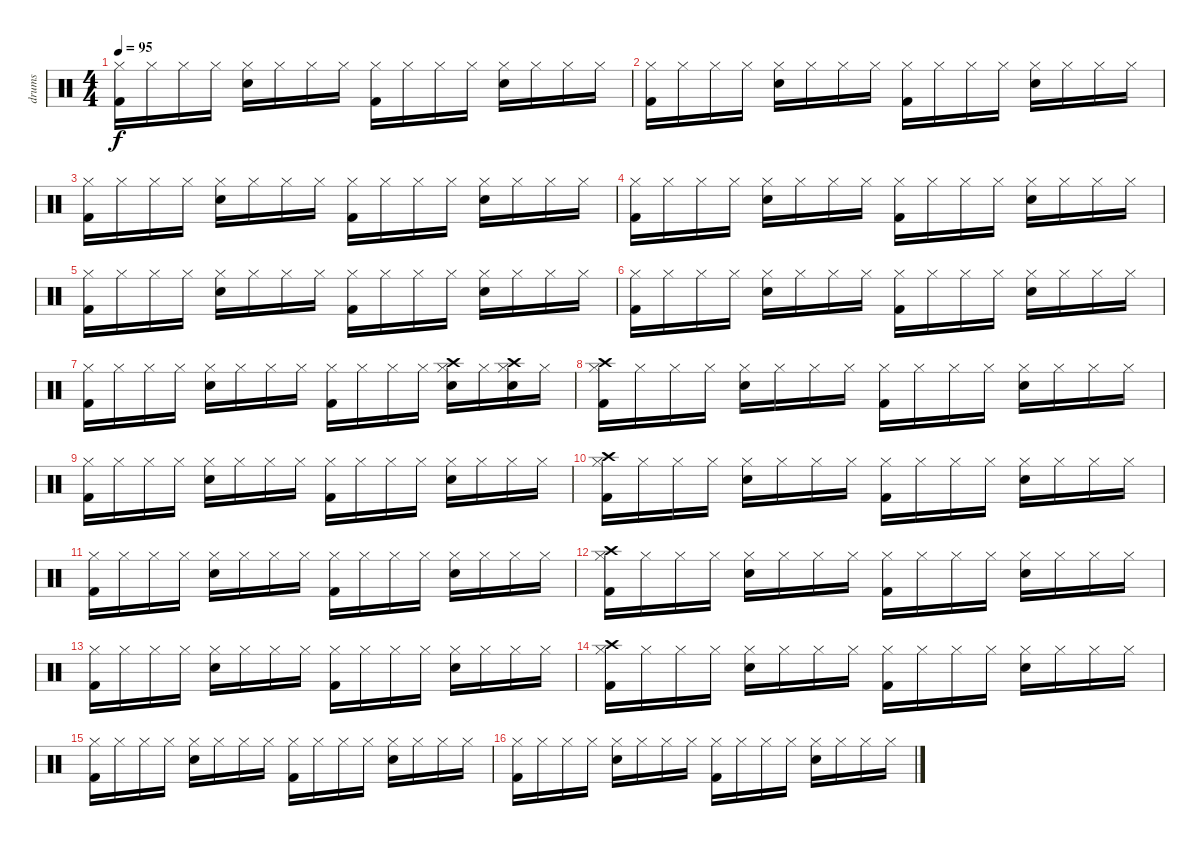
\track ("drums" "drums") {instrument percussion}
\staff {score}
\articulation defaults
\ts (4 4)
\tempo 95
\clef neutral
\ks c
("Kick (hit) 2" "Hi-Hat (closed)").16{dy f} "Hi-Hat (closed)".16 "Hi-Hat (closed)".16 "Hi-Hat (closed)".16 ("Snare (hit) 2" "Hi-Hat (closed)").16 "Hi-Hat (closed)".16 "Hi-Hat (closed)".16 "Hi-Hat (closed)".16 ("Kick (hit) 2" "Hi-Hat (closed)").16 "Hi-Hat (closed)".16 "Hi-Hat (closed)".16 "Hi-Hat (closed)".16 ("Snare (hit) 2" "Hi-Hat (closed)").16 "Hi-Hat (closed)".16 "Hi-Hat (closed)".16 "Hi-Hat (closed)".16 |
("Kick (hit) 2" "Hi-Hat (closed)").16 "Hi-Hat (closed)".16 "Hi-Hat (closed)".16 "Hi-Hat (closed)".16 ("Snare (hit) 2" "Hi-Hat (closed)").16 "Hi-Hat (closed)".16 "Hi-Hat (closed)".16 "Hi-Hat (closed)".16 ("Kick (hit) 2" "Hi-Hat (closed)").16 "Hi-Hat (closed)".16 "Hi-Hat (closed)".16 "Hi-Hat (closed)".16 ("Snare (hit) 2" "Hi-Hat (closed)").16 "Hi-Hat (closed)".16 "Hi-Hat (closed)".16 "Hi-Hat (closed)".16 |
("Kick (hit) 2" "Hi-Hat (closed)").16 "Hi-Hat (closed)".16 "Hi-Hat (closed)".16 "Hi-Hat (closed)".16 ("Snare (hit) 2" "Hi-Hat (closed)").16 "Hi-Hat (closed)".16 "Hi-Hat (closed)".16 "Hi-Hat (closed)".16 ("Kick (hit) 2" "Hi-Hat (closed)").16 "Hi-Hat (closed)".16 "Hi-Hat (closed)".16 "Hi-Hat (closed)".16 ("Snare (hit) 2" "Hi-Hat (closed)").16 "Hi-Hat (closed)".16 "Hi-Hat (closed)".16 "Hi-Hat (closed)".16 |
("Kick (hit) 2" "Hi-Hat (closed)").16 "Hi-Hat (closed)".16 "Hi-Hat (closed)".16 "Hi-Hat (closed)".16 ("Snare (hit) 2" "Hi-Hat (closed)").16 "Hi-Hat (closed)".16 "Hi-Hat (closed)".16 "Hi-Hat (closed)".16 ("Kick (hit) 2" "Hi-Hat (closed)").16 "Hi-Hat (closed)".16 "Hi-Hat (closed)".16 "Hi-Hat (closed)".16 ("Snare (hit) 2" "Hi-Hat (closed)").16 "Hi-Hat (closed)".16 "Hi-Hat (closed)".16 "Hi-Hat (closed)".16 |
("Kick (hit) 2" "Hi-Hat (closed)").16 "Hi-Hat (closed)".16 "Hi-Hat (closed)".16 "Hi-Hat (closed)".16 ("Snare (hit) 2" "Hi-Hat (closed)").16 "Hi-Hat (closed)".16 "Hi-Hat (closed)".16 "Hi-Hat (closed)".16 ("Kick (hit) 2" "Hi-Hat (closed)").16 "Hi-Hat (closed)".16 "Hi-Hat (closed)".16 "Hi-Hat (closed)".16 ("Snare (hit) 2" "Hi-Hat (closed)").16 "Hi-Hat (closed)".16 "Hi-Hat (closed)".16 "Hi-Hat (closed)".16 |
("Kick (hit) 2" "Hi-Hat (closed)").16 "Hi-Hat (closed)".16 "Hi-Hat (closed)".16 "Hi-Hat (closed)".16 ("Snare (hit) 2" "Hi-Hat (closed)").16 "Hi-Hat (closed)".16 "Hi-Hat (closed)".16 "Hi-Hat (closed)".16 ("Kick (hit) 2" "Hi-Hat (closed)").16 "Hi-Hat (closed)".16 "Hi-Hat (closed)".16 "Hi-Hat (closed)".16 ("Snare (hit) 2" "Hi-Hat (closed)").16 "Hi-Hat (closed)".16 "Hi-Hat (closed)".16 "Hi-Hat (closed)".16 |
("Kick (hit) 2" "Hi-Hat (closed)").16 "Hi-Hat (closed)".16 "Hi-Hat (closed)".16 "Hi-Hat (closed)".16 ("Snare (hit) 2" "Hi-Hat (closed)").16 "Hi-Hat (closed)".16 "Hi-Hat (closed)".16 "Hi-Hat (closed)".16 ("Kick (hit) 2" "Hi-Hat (closed)").16 "Hi-Hat (closed)".16 "Hi-Hat (closed)".16 "Hi-Hat (closed)".16 ("Crash high (hit)" "Snare (hit) 2" "Hi-Hat (closed)").16 "Hi-Hat (closed)".16 ("Crash high (hit)" "Snare (hit) 2" "Hi-Hat (closed)").16 "Hi-Hat (closed)".16 |
("Crash high (hit)" "Kick (hit) 2" "Hi-Hat (closed)").16 "Hi-Hat (closed)".16 "Hi-Hat (closed)".16 "Hi-Hat (closed)".16 ("Snare (hit) 2" "Hi-Hat (closed)").16 "Hi-Hat (closed)".16 "Hi-Hat (closed)".16 "Hi-Hat (closed)".16 ("Kick (hit) 2" "Hi-Hat (closed)").16 "Hi-Hat (closed)".16 "Hi-Hat (closed)".16 "Hi-Hat (closed)".16 ("Snare (hit) 2" "Hi-Hat (closed)").16 "Hi-Hat (closed)".16 "Hi-Hat (closed)".16 "Hi-Hat (closed)".16 |
("Kick (hit) 2" "Hi-Hat (closed)").16 "Hi-Hat (closed)".16 "Hi-Hat (closed)".16 "Hi-Hat (closed)".16 ("Snare (hit) 2" "Hi-Hat (closed)").16 "Hi-Hat (closed)".16 "Hi-Hat (closed)".16 "Hi-Hat (closed)".16 ("Kick (hit) 2" "Hi-Hat (closed)").16 "Hi-Hat (closed)".16 "Hi-Hat (closed)".16 "Hi-Hat (closed)".16 ("Snare (hit) 2" "Hi-Hat (closed)").16 "Hi-Hat (closed)".16 "Hi-Hat (closed)".16 "Hi-Hat (closed)".16 |
("Crash high (hit)" "Kick (hit) 2" "Hi-Hat (closed)").16 "Hi-Hat (closed)".16 "Hi-Hat (closed)".16 "Hi-Hat (closed)".16 ("Snare (hit) 2" "Hi-Hat (closed)").16 "Hi-Hat (closed)".16 "Hi-Hat (closed)".16 "Hi-Hat (closed)".16 ("Kick (hit) 2" "Hi-Hat (closed)").16 "Hi-Hat (closed)".16 "Hi-Hat (closed)".16 "Hi-Hat (closed)".16 ("Snare (hit) 2" "Hi-Hat (closed)").16 "Hi-Hat (closed)".16 "Hi-Hat (closed)".16 "Hi-Hat (closed)".16 |
("Kick (hit) 2" "Hi-Hat (closed)").16 "Hi-Hat (closed)".16 "Hi-Hat (closed)".16 "Hi-Hat (closed)".16 ("Snare (hit) 2" "Hi-Hat (closed)").16 "Hi-Hat (closed)".16 "Hi-Hat (closed)".16 "Hi-Hat (closed)".16 ("Kick (hit) 2" "Hi-Hat (closed)").16 "Hi-Hat (closed)".16 "Hi-Hat (closed)".16 "Hi-Hat (closed)".16 ("Snare (hit) 2" "Hi-Hat (closed)").16 "Hi-Hat (closed)".16 "Hi-Hat (closed)".16 "Hi-Hat (closed)".16 |
("Crash high (hit)" "Kick (hit) 2" "Hi-Hat (closed)").16 "Hi-Hat (closed)".16 "Hi-Hat (closed)".16 "Hi-Hat (closed)".16 ("Snare (hit) 2" "Hi-Hat (closed)").16 "Hi-Hat (closed)".16 "Hi-Hat (closed)".16 "Hi-Hat (closed)".16 ("Kick (hit) 2" "Hi-Hat (closed)").16 "Hi-Hat (closed)".16 "Hi-Hat (closed)".16 "Hi-Hat (closed)".16 ("Snare (hit) 2" "Hi-Hat (closed)").16 "Hi-Hat (closed)".16 "Hi-Hat (closed)".16 "Hi-Hat (closed)".16 |
("Kick (hit) 2" "Hi-Hat (closed)").16 "Hi-Hat (closed)".16 "Hi-Hat (closed)".16 "Hi-Hat (closed)".16 ("Snare (hit) 2" "Hi-Hat (closed)").16 "Hi-Hat (closed)".16 "Hi-Hat (closed)".16 "Hi-Hat (closed)".16 ("Kick (hit) 2" "Hi-Hat (closed)").16 "Hi-Hat (closed)".16 "Hi-Hat (closed)".16 "Hi-Hat (closed)".16 ("Snare (hit) 2" "Hi-Hat (closed)").16 "Hi-Hat (closed)".16 "Hi-Hat (closed)".16 "Hi-Hat (closed)".16 |
("Crash high (hit)" "Kick (hit) 2" "Hi-Hat (closed)").16 "Hi-Hat (closed)".16 "Hi-Hat (closed)".16 "Hi-Hat (closed)".16 ("Snare (hit) 2" "Hi-Hat (closed)").16 "Hi-Hat (closed)".16 "Hi-Hat (closed)".16 "Hi-Hat (closed)".16 ("Kick (hit) 2" "Hi-Hat (closed)").16 "Hi-Hat (closed)".16 "Hi-Hat (closed)".16 "Hi-Hat (closed)".16 ("Snare (hit) 2" "Hi-Hat (closed)").16 "Hi-Hat (closed)".16 "Hi-Hat (closed)".16 "Hi-Hat (closed)".16 |
("Kick (hit) 2" "Hi-Hat (closed)").16 "Hi-Hat (closed)".16 "Hi-Hat (closed)".16 "Hi-Hat (closed)".16 ("Snare (hit) 2" "Hi-Hat (closed)").16 "Hi-Hat (closed)".16 "Hi-Hat (closed)".16 "Hi-Hat (closed)".16 ("Kick (hit) 2" "Hi-Hat (closed)").16 "Hi-Hat (closed)".16 "Hi-Hat (closed)".16 "Hi-Hat (closed)".16 ("Snare (hit) 2" "Hi-Hat (closed)").16 "Hi-Hat (closed)".16 "Hi-Hat (closed)".16 "Hi-Hat (closed)".16 |
("Kick (hit) 2" "Hi-Hat (closed)").16 "Hi-Hat (closed)".16 "Hi-Hat (closed)".16 "Hi-Hat (closed)".16 ("Snare (hit) 2" "Hi-Hat (closed)").16 "Hi-Hat (closed)".16 "Hi-Hat (closed)".16 "Hi-Hat (closed)".16 ("Kick (hit) 2" "Hi-Hat (closed)").16 "Hi-Hat (closed)".16 "Hi-Hat (closed)".16 "Hi-Hat (closed)".16 ("Snare (hit) 2" "Hi-Hat (closed)").16 "Hi-Hat (closed)".16 "Hi-Hat (closed)".16 "Hi-Hat (closed)".16
